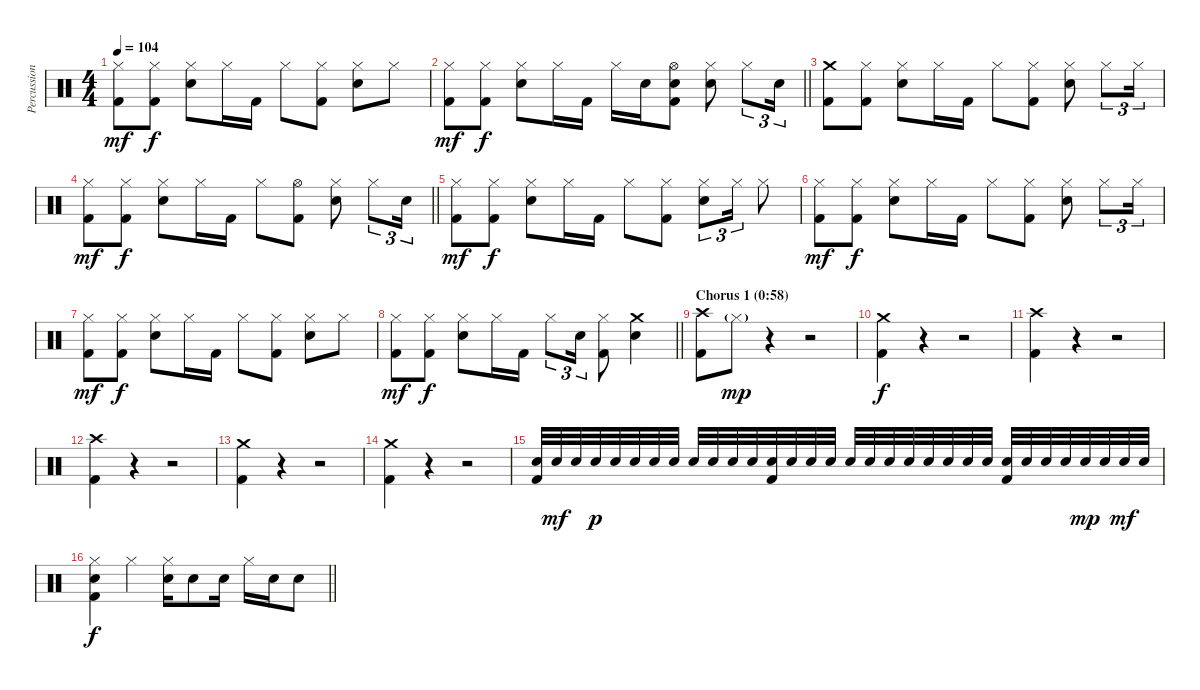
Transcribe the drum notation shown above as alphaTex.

\track ("Percussion" "Percussion") {instrument percussion}
\staff {score}
\articulation defaults
\ts (4 4)
\tempo 104
\clef neutral
\ks c
("Hi-Hat (closed)" "Kick (hit) 2").8{dy mf} ("Hi-Hat (closed)" "Kick (hit) 2").8{dy f} ("Hi-Hat (closed)" "Electric Snare (hit)").8 "Hi-Hat (closed)".16 "Kick (hit) 2".16 "Hi-Hat (closed)".8 ("Hi-Hat (closed)" "Kick (hit) 2").8 ("Hi-Hat (closed)" "Electric Snare (hit)").8 "Hi-Hat (closed)".8 |
\barLineRight lightlight
("Hi-Hat (closed)" "Kick (hit) 2").8{dy mf} ("Hi-Hat (closed)" "Kick (hit) 2").8{dy f} ("Hi-Hat (closed)" "Electric Snare (hit)").8 "Hi-Hat (closed)".16 "Kick (hit) 2".16 "Hi-Hat (closed)".16 "Snare (hit) 2".16 ("Hi-Hat (open)" "Snare (hit) 2" "Kick (hit) 2").8 ("Hi-Hat (closed)" "Electric Snare (hit)").8 "Hi-Hat (closed)".8{tu (3 2)} "Electric Snare (hit)".16{tu (3 2)} |
("Crash medium (hit)" "Kick (hit) 2").8 ("Hi-Hat (closed)" "Kick (hit) 2").8 ("Hi-Hat (closed)" "Electric Snare (hit)").8 "Hi-Hat (closed)".16 "Kick (hit) 2".16 "Hi-Hat (closed)".8 ("Hi-Hat (closed)" "Kick (hit) 2").8 ("Hi-Hat (closed)" "Electric Snare (hit)").8 "Hi-Hat (closed)".8{tu (3 2)} "Hi-Hat (closed)".16{tu (3 2)} |
\barLineRight lightlight
("Hi-Hat (closed)" "Kick (hit) 2").8{dy mf} ("Hi-Hat (closed)" "Kick (hit) 2").8{dy f} ("Hi-Hat (closed)" "Electric Snare (hit)").8 "Hi-Hat (closed)".16 "Kick (hit) 2".16 "Hi-Hat (closed)".8 ("Hi-Hat (open)" "Kick (hit) 2").8 ("Hi-Hat (closed)" "Electric Snare (hit)").8 "Hi-Hat (closed)".8{tu (3 2)} "Electric Snare (hit)".16{tu (3 2)} |
("Hi-Hat (closed)" "Kick (hit) 2").8{dy mf} ("Hi-Hat (closed)" "Kick (hit) 2").8{dy f} ("Hi-Hat (closed)" "Electric Snare (hit)").8 "Hi-Hat (closed)".16 "Kick (hit) 2".16 "Hi-Hat (closed)".8 ("Hi-Hat (closed)" "Kick (hit) 2").8 ("Hi-Hat (closed)" "Electric Snare (hit)").8{tu (3 2)} "Hi-Hat (closed)".16{tu (3 2)} "Hi-Hat (closed)".8 |
("Hi-Hat (closed)" "Kick (hit) 2").8{dy mf} ("Hi-Hat (closed)" "Kick (hit) 2").8{dy f} ("Hi-Hat (closed)" "Electric Snare (hit)").8 "Hi-Hat (closed)".16 "Kick (hit) 2".16 "Hi-Hat (closed)".8 ("Hi-Hat (closed)" "Kick (hit) 2").8 ("Hi-Hat (closed)" "Electric Snare (hit)").8 "Hi-Hat (closed)".8{tu (3 2)} "Hi-Hat (closed)".16{tu (3 2)} |
("Hi-Hat (closed)" "Kick (hit) 2").8{dy mf} ("Hi-Hat (closed)" "Kick (hit) 2").8{dy f} ("Hi-Hat (closed)" "Electric Snare (hit)").8 "Hi-Hat (closed)".16 "Kick (hit) 2".16 "Hi-Hat (closed)".8 ("Hi-Hat (closed)" "Kick (hit) 2").8 ("Hi-Hat (closed)" "Electric Snare (hit)").8 "Hi-Hat (closed)".8 |
\barLineRight lightlight
("Hi-Hat (closed)" "Kick (hit) 2").8{dy mf} ("Hi-Hat (closed)" "Kick (hit) 2").8{dy f} ("Hi-Hat (closed)" "Electric Snare (hit)").8 "Hi-Hat (closed)".16 "Kick (hit) 2".16 "Hi-Hat (closed)".8{tu (3 2)} "Snare (hit) 2".16{tu (3 2)} ("Hi-Hat (closed)" "Kick (hit) 2").8 ("Crash medium (hit)" "Electric Snare (hit)").4 |
\section ("" "Chorus 1 (0:58)")
("Crash high (hit)" "Kick (hit) 2").8 "Hi-Hat (closed)"{g}.8{dy mp} r.4 r.2 |
("Crash medium (hit)" "Kick (hit) 2").4{dy f} r.4 r.2 |
("Crash high (hit)" "Kick (hit) 2").4 r.4 r.2 |
("Crash high (hit)" "Kick (hit) 2").4 r.4 r.2 |
("Crash medium (hit)" "Kick (hit) 2").4 r.4 r.2 |
("Crash medium (hit)" "Kick (hit) 2").4 r.4 r.2 |
("Electric Snare (hit)" "Kick (hit) 2").32 "Electric Snare (hit)".32{dy mf} "Electric Snare (hit)".32 "Electric Snare (hit)".32{dy p} "Electric Snare (hit)".32 "Electric Snare (hit)".32 "Electric Snare (hit)".32 "Electric Snare (hit)".32 "Electric Snare (hit)".32{beam Up} "Electric Snare (hit)".32{beam Up} "Electric Snare (hit)".32{beam Up} "Electric Snare (hit)".32{beam Up} ("Electric Snare (hit)" "Kick (hit) 2").32{beam Up} "Electric Snare (hit)".32{beam Up} "Electric Snare (hit)".32{beam Up} "Electric Snare (hit)".32{beam Up} "Electric Snare (hit)".32{beam Up} "Electric Snare (hit)".32{beam Up} "Electric Snare (hit)".32{beam Up} "Electric Snare (hit)".32{beam Up} "Electric Snare (hit)".32{beam Up} "Electric Snare (hit)".32{beam Up} "Electric Snare (hit)".32{beam Up} "Electric Snare (hit)".32{beam Up} ("Electric Snare (hit)" "Kick (hit) 2").32{beam Up} "Electric Snare (hit)".32{beam Up} "Electric Snare (hit)".32{beam Up} "Electric Snare (hit)".32{beam Up} "Electric Snare (hit)".32{dy mp beam Up} "Electric Snare (hit)".32{beam Up} "Electric Snare (hit)".32{dy mf beam Up} "Electric Snare (hit)".32{beam Up} |
\barLineRight lightlight
("Hi-Hat (closed)" "Electric Snare (hit)" "Kick (hit) 2").4{dy f} "Hi-Hat (closed)".4 ("Hi-Hat (closed)" "Snare (hit) 2").16 "Snare (hit) 2".8 "Electric Snare (hit)".16 "Hi-Hat (closed)".16 "Snare (hit) 2".16 "Snare (hit) 2".8
